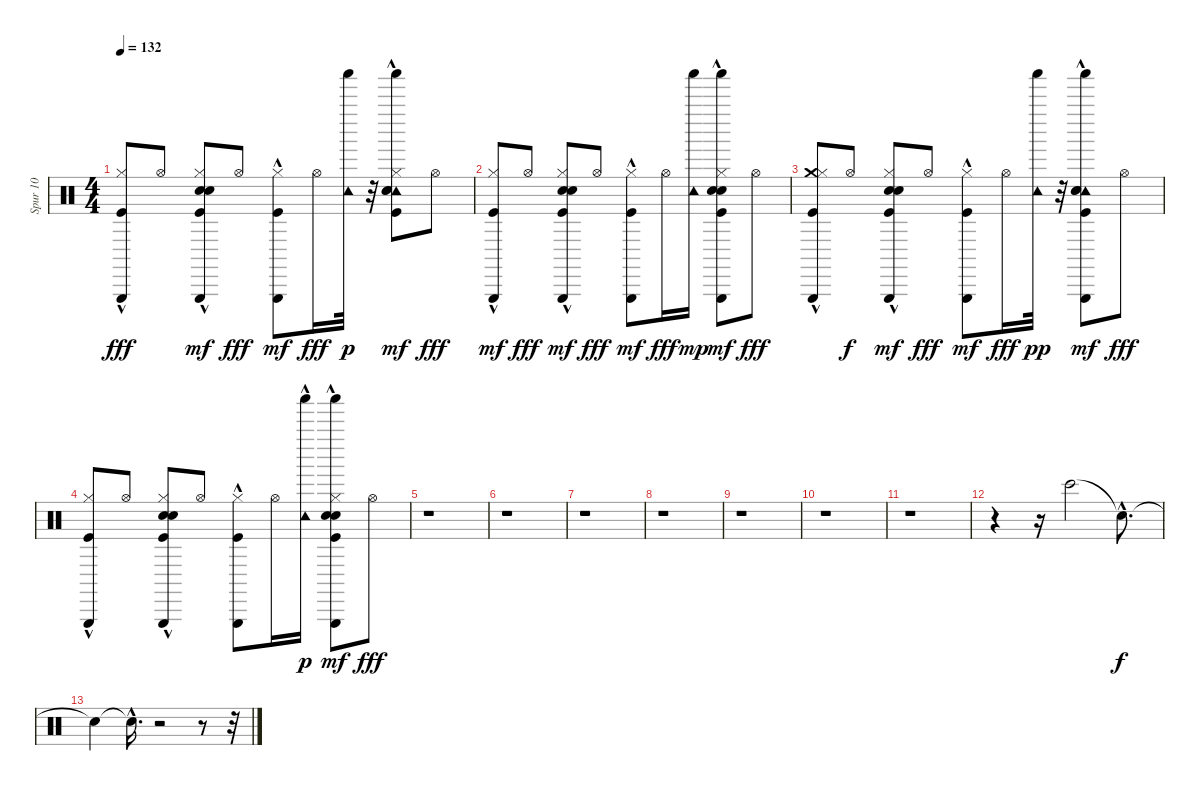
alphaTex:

\track ("Spur 10" "Spur 10") {instrument percussion}
\staff {score}
\articulation defaults
\ts (4 4)
\tempo 132
\clef neutral
\ks c
("Triangle (hit)"{hac} "Kick (hit)"{hac} "Hi-Hat (closed)").8{dy fff} "Hi-Hat (open)".8 ("Kick (hit)"{hac} "Hand Clap (hit)"{hac} "Snare (hit) 2"{hac} "Hi-Hat (closed)" "Triangle (hit)"{hac}).8{dy mf} "Hi-Hat (open)".8{dy fff} ("Hi-Hat (closed)" "Kick (hit)"{hac} "Triangle (hit)"{hac}).8{dy mf} "Hi-Hat (open)".16{dy fff} ("Tambourine (hit)" "Shaker (hit)").32{dy p} r.32 ("Shaker (hit)" "Tambourine (hit)"{hac} "Hi-Hat (closed)" "Kick (hit)"{hac} "Hand Clap (hit)"{hac} "Snare (hit) 2"{hac}).8{dy mf} "Hi-Hat (open)".8{dy fff} |
("Hi-Hat (closed)" "Kick (hit)"{hac} "Triangle (hit)"{hac}).8{dy mf} "Hi-Hat (open)".8{dy fff} ("Hi-Hat (closed)" "Kick (hit)"{hac} "Snare (hit) 2"{hac} "Hand Clap (hit)"{hac} "Triangle (hit)"{hac}).8{dy mf} "Hi-Hat (open)".8{dy fff} ("Kick (hit)"{hac} "Hi-Hat (closed)" "Triangle (hit)"{hac}).8{dy mf} "Hi-Hat (open)".16{dy fff} ("Shaker (hit)" "Tambourine (hit)").16{dy mp} ("Shaker (hit)"{hac} "Triangle (hit)"{hac} "Hi-Hat (closed)" "Kick (hit)" "Hand Clap (hit)"{hac} "Snare (hit) 2"{hac}).8{dy mf} "Hi-Hat (open)".8{dy fff} |
("Crash medium (hit)" "Triangle (hit)"{hac} "Hi-Hat (closed)" "Kick (hit)").8 "Hi-Hat (open)".8{dy f} ("Snare (hit) 2"{hac} "Hand Clap (hit)"{hac} "Kick (hit)"{hac} "Hi-Hat (closed)" "Triangle (hit)").8{dy mf} "Hi-Hat (open)".8{dy fff} ("Kick (hit)"{hac} "Hi-Hat (closed)"{hac} "Triangle (hit)"{hac}).8{dy mf} "Hi-Hat (open)".16{dy fff} ("Tambourine (hit)" "Shaker (hit)").32{dy pp} r.32 ("Shaker (hit)" "Tambourine (hit)"{hac} "Triangle (hit)" "Kick (hit)"{hac} "Hand Clap (hit)"{hac} "Snare (hit) 2"{hac}).8{dy mf} "Hi-Hat (open)".8{dy fff} |
("Triangle (hit)"{hac} "Hi-Hat (closed)" "Kick (hit)"{hac}).8 "Hi-Hat (open)".8 ("Triangle (hit)" "Hi-Hat (closed)" "Hand Clap (hit)"{hac} "Snare (hit) 2"{hac} "Kick (hit)"{hac}).8 "Hi-Hat (open)".8 ("Triangle (hit)"{hac} "Hi-Hat (closed)" "Kick (hit)"{hac}).8 "Hi-Hat (open)".16 ("Tambourine (hit)"{hac} "Shaker (hit)").16{dy p} ("Shaker (hit)" "Triangle (hit)"{hac} "Hi-Hat (closed)" "Kick (hit)"{hac} "Hand Clap (hit)"{hac} "Snare (hit) 2"{hac}).8{dy mf} "Hi-Hat (open)".8{dy fff} |
r.1 |
r.1 |
r.1 |
r.1 |
r.1 |
r.1 |
r.1 |
r.4 r.16 "Bongo High (hit)".2 "Snare (hit)"{hac t}.8{d dy f} |
"Snare (hit)"{t}.4 "Snare (hit)"{hac t}.16{d} r.2 r.8 r.32
